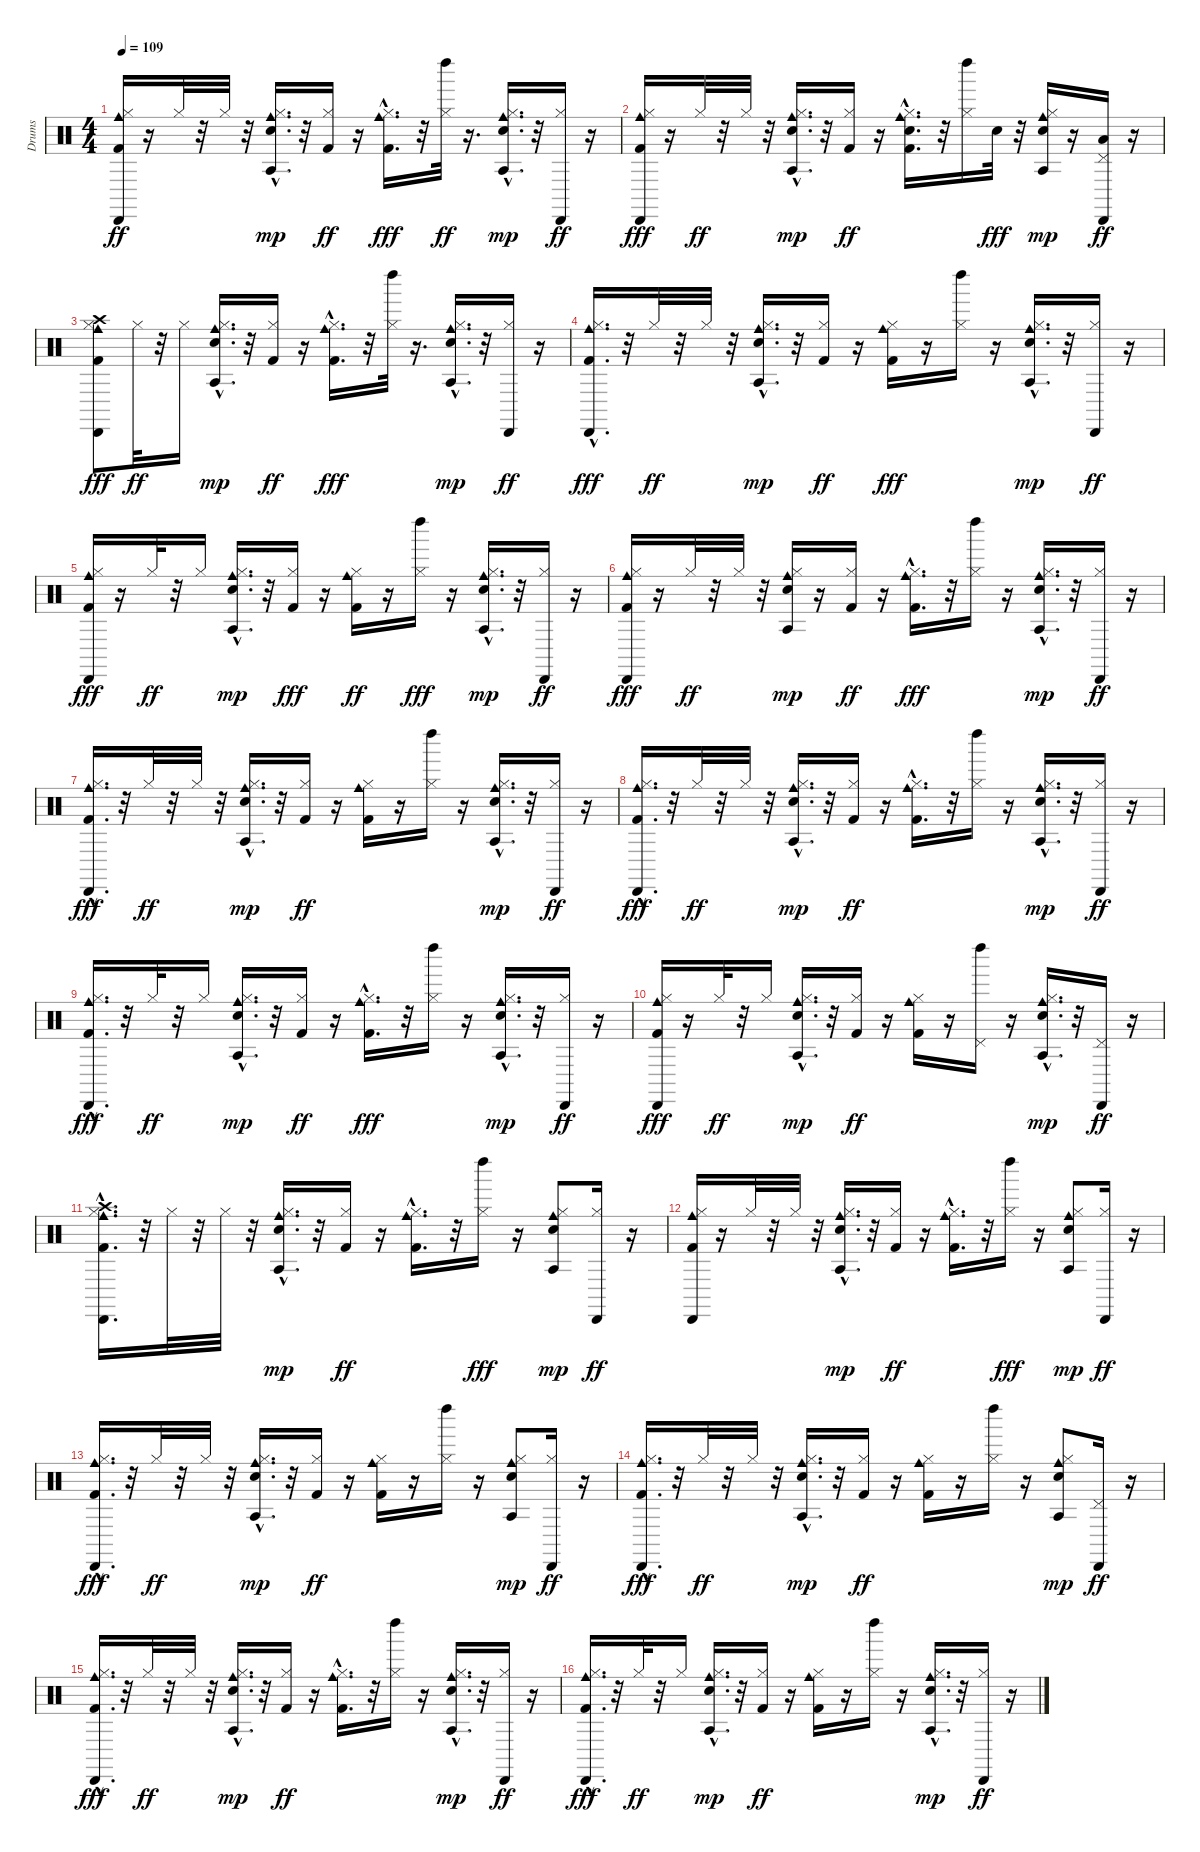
\track ("Drums   " "Drums   ") {instrument percussion}
\staff {score}
\articulation defaults
\ts (4 4)
\tempo 109
\clef neutral
\ks c
("Kick (hit) 2" "Cowbell medium (hit)" "Hi-Hat (closed)" "Cabasa (hit)").16{dy ff} r.16 "Hi-Hat (closed)".32 r.32 "Hi-Hat (closed)".32 r.32 ("Snare (hit) 2"{hac} "Hi-Hat (closed)"{hac} "Cowbell medium (hit)"{hac} "Agogo tow (hit)"{hac}).16{d dy mp} r.32 ("Kick (hit) 2" "Hi-Hat (closed)").16{dy ff} r.16 ("Kick (hit) 2"{hac} "Cowbell medium (hit)"{hac} "Hi-Hat (closed)"{hac}).16{d dy fff} r.32 ("Hi-Hat (closed)" "Left Maraca (hit)").32{dy ff} r.16{d} ("Snare (hit) 2"{hac} "Hi-Hat (closed)"{hac} "Cowbell medium (hit)"{hac} "Agogo tow (hit)"{hac}).16{d dy mp} r.32 ("Hi-Hat (closed)" "Cabasa (hit)").16{dy ff} r.16 |
("Kick (hit) 2" "Hi-Hat (closed)" "Cowbell medium (hit)" "Cabasa (hit)").16{dy fff} r.16 "Hi-Hat (closed)".32{dy ff} r.32 "Hi-Hat (closed)".32 r.32 ("Snare (hit) 2"{hac} "Hi-Hat (closed)"{hac} "Cowbell medium (hit)"{hac} "Agogo tow (hit)"{hac}).16{d dy mp} r.32 ("Kick (hit) 2" "Hi-Hat (closed)").16{dy ff} r.16 ("Kick (hit) 2"{hac} "Cowbell medium (hit)"{hac} "Snare (hit) 2"{hac} "Hi-Hat (closed)"{hac}).16{d} r.32 ("Hi-Hat (closed)" "Left Maraca (hit)").16 "Snare (hit) 2".32{dy fff} r.32 ("Cowbell medium (hit)" "Snare (hit) 2" "Hi-Hat (closed)" "Agogo tow (hit)").16{dy mp} r.16 ("Pedal Hi-Hat (hit)" "Low Tom (hit)" "Cabasa (hit)").16{dy ff} r.16 |
("Kick (hit) 2" "Cowbell medium (hit)" "Hi-Hat (closed)" "Cabasa (hit)" "Crash high (hit)").8{dy fff} "Hi-Hat (closed)".32{dy ff} r.32 "Hi-Hat (closed)".16 ("Snare (hit) 2"{hac} "Hi-Hat (closed)"{hac} "Cowbell medium (hit)"{hac} "Agogo tow (hit)"{hac}).16{d dy mp} r.32 ("Kick (hit) 2" "Hi-Hat (closed)").16{dy ff} r.16 ("Kick (hit) 2"{hac} "Hi-Hat (closed)"{hac} "Cowbell medium (hit)"{hac}).16{d dy fff} r.32 ("Hi-Hat (closed)" "Left Maraca (hit)").32 r.16{d} ("Snare (hit) 2"{hac} "Hi-Hat (closed)"{hac} "Cowbell medium (hit)"{hac} "Agogo tow (hit)"{hac}).16{d dy mp} r.32 ("Hi-Hat (closed)" "Cabasa (hit)").16{dy ff} r.16 |
("Kick (hit) 2"{hac} "Cowbell medium (hit)"{hac} "Hi-Hat (closed)"{hac} "Cabasa (hit)"{hac}).16{d dy fff} r.32 "Hi-Hat (closed)".32{dy ff} r.32 "Hi-Hat (closed)".32 r.32 ("Snare (hit) 2"{hac} "Hi-Hat (closed)"{hac} "Cowbell medium (hit)"{hac} "Agogo tow (hit)"{hac}).16{d dy mp} r.32 ("Kick (hit) 2" "Hi-Hat (closed)").16{dy ff} r.16 ("Kick (hit) 2" "Cowbell medium (hit)" "Hi-Hat (closed)").16{dy fff} r.16 ("Hi-Hat (closed)" "Left Maraca (hit)").16 r.16 ("Snare (hit) 2"{hac} "Hi-Hat (closed)"{hac} "Cowbell medium (hit)"{hac} "Agogo tow (hit)"{hac}).16{d dy mp} r.32 ("Hi-Hat (closed)" "Cabasa (hit)").16{dy ff} r.16 |
("Kick (hit) 2" "Cowbell medium (hit)" "Hi-Hat (closed)" "Cabasa (hit)").16{dy fff} r.16 "Hi-Hat (closed)".32{dy ff} r.32 "Hi-Hat (closed)".16 ("Snare (hit) 2"{hac} "Cowbell medium (hit)"{hac} "Hi-Hat (closed)"{hac} "Agogo tow (hit)"{hac}).16{d dy mp} r.32 ("Kick (hit) 2" "Hi-Hat (closed)").16{dy fff} r.16 ("Cowbell medium (hit)" "Kick (hit) 2" "Hi-Hat (closed)").16{dy ff} r.16 ("Hi-Hat (closed)" "Left Maraca (hit)").16{dy fff} r.16 ("Snare (hit) 2"{hac} "Hi-Hat (closed)"{hac} "Cowbell medium (hit)"{hac} "Agogo tow (hit)"{hac}).16{d dy mp} r.32 ("Hi-Hat (closed)" "Cabasa (hit)").16{dy ff} r.16 |
("Kick (hit) 2" "Hi-Hat (closed)" "Cowbell medium (hit)" "Cabasa (hit)").16{dy fff} r.16 "Hi-Hat (closed)".32{dy ff} r.32 "Hi-Hat (closed)".32 r.32 ("Snare (hit) 2" "Cowbell medium (hit)" "Hi-Hat (closed)" "Agogo tow (hit)").16{dy mp} r.16 ("Kick (hit) 2" "Hi-Hat (closed)").16{dy ff} r.16 ("Kick (hit) 2"{hac} "Hi-Hat (closed)"{hac} "Cowbell medium (hit)"{hac}).16{d dy fff} r.32 ("Hi-Hat (closed)" "Left Maraca (hit)").16 r.16 ("Snare (hit) 2"{hac} "Cowbell medium (hit)"{hac} "Hi-Hat (closed)"{hac} "Agogo tow (hit)"{hac}).16{d dy mp} r.32 ("Hi-Hat (closed)" "Cabasa (hit)").16{dy ff} r.16 |
("Kick (hit) 2"{hac} "Cowbell medium (hit)"{hac} "Hi-Hat (closed)"{hac} "Cabasa (hit)"{hac}).16{d dy fff} r.32 "Hi-Hat (closed)".32{dy ff} r.32 "Hi-Hat (closed)".32 r.32 ("Snare (hit) 2"{hac} "Hi-Hat (closed)"{hac} "Cowbell medium (hit)"{hac} "Agogo tow (hit)"{hac}).16{d dy mp} r.32 ("Kick (hit) 2" "Hi-Hat (closed)").16{dy ff} r.16 ("Kick (hit) 2" "Cowbell medium (hit)" "Hi-Hat (closed)").16 r.16 ("Hi-Hat (closed)" "Left Maraca (hit)").16 r.16 ("Snare (hit) 2"{hac} "Hi-Hat (closed)"{hac} "Cowbell medium (hit)"{hac} "Agogo tow (hit)"{hac}).16{d dy mp} r.32 ("Hi-Hat (closed)" "Cabasa (hit)").16{dy ff} r.16 |
("Kick (hit) 2"{hac} "Cowbell medium (hit)"{hac} "Hi-Hat (closed)"{hac} "Cabasa (hit)"{hac}).16{d dy fff} r.32 "Hi-Hat (closed)".32{dy ff} r.32 "Hi-Hat (closed)".32 r.32 ("Snare (hit) 2"{hac} "Hi-Hat (closed)"{hac} "Cowbell medium (hit)"{hac} "Agogo tow (hit)"{hac}).16{d dy mp} r.32 ("Kick (hit) 2" "Hi-Hat (closed)").16{dy ff} r.16 ("Kick (hit) 2"{hac} "Cowbell medium (hit)"{hac} "Hi-Hat (closed)"{hac}).16{d} r.32 ("Hi-Hat (closed)" "Left Maraca (hit)").16 r.16 ("Snare (hit) 2"{hac} "Hi-Hat (closed)"{hac} "Cowbell medium (hit)"{hac} "Agogo tow (hit)"{hac}).16{d dy mp} r.32 ("Hi-Hat (closed)" "Cabasa (hit)").16{dy ff} r.16 |
("Cowbell medium (hit)"{hac} "Kick (hit) 2"{hac} "Hi-Hat (closed)"{hac} "Cabasa (hit)"{hac}).16{d dy fff} r.32 "Hi-Hat (closed)".32{dy ff} r.32 "Hi-Hat (closed)".16 ("Snare (hit) 2"{hac} "Hi-Hat (closed)"{hac} "Cowbell medium (hit)"{hac} "Agogo tow (hit)"{hac}).16{d dy mp} r.32 ("Kick (hit) 2" "Hi-Hat (closed)").16{dy ff} r.16 ("Kick (hit) 2"{hac} "Hi-Hat (closed)"{hac} "Cowbell medium (hit)"{hac}).16{d dy fff} r.32 ("Hi-Hat (closed)" "Left Maraca (hit)").16 r.16 ("Snare (hit) 2"{hac} "Hi-Hat (closed)"{hac} "Cowbell medium (hit)"{hac} "Agogo tow (hit)"{hac}).16{d dy mp} r.32 ("Hi-Hat (closed)" "Cabasa (hit)").16{dy ff} r.16 |
("Kick (hit) 2" "Cowbell medium (hit)" "Hi-Hat (closed)" "Cabasa (hit)").16{dy fff} r.16 "Hi-Hat (closed)".32{dy ff} r.32 "Hi-Hat (closed)".16 ("Snare (hit) 2"{hac} "Hi-Hat (closed)"{hac} "Cowbell medium (hit)"{hac} "Agogo tow (hit)"{hac}).16{d dy mp} r.32 ("Kick (hit) 2" "Hi-Hat (closed)").16{dy ff} r.16 ("Kick (hit) 2" "Cowbell medium (hit)" "Hi-Hat (closed)").16 r.16 ("Pedal Hi-Hat (hit)" "Left Maraca (hit)").16 r.16 ("Snare (hit) 2"{hac} "Hi-Hat (closed)"{hac} "Cowbell medium (hit)"{hac} "Agogo tow (hit)"{hac}).16{d dy mp} r.32 ("Pedal Hi-Hat (hit)" "Cabasa (hit)").16{dy ff} r.16 |
("Kick (hit) 2"{hac} "Cowbell medium (hit)"{hac} "Hi-Hat (closed)"{hac} "Crash high (hit)"{hac} "Cabasa (hit)"{hac}).16{d} r.32 "Hi-Hat (closed)".32 r.32 "Hi-Hat (closed)".32 r.32 ("Snare (hit) 2"{hac} "Hi-Hat (closed)"{hac} "Cowbell medium (hit)"{hac} "Agogo tow (hit)"{hac}).16{d dy mp} r.32 ("Kick (hit) 2" "Hi-Hat (closed)").16{dy ff} r.16 ("Kick (hit) 2"{hac} "Cowbell medium (hit)"{hac} "Hi-Hat (closed)"{hac}).16{d} r.32 ("Hi-Hat (closed)" "Left Maraca (hit)").16{dy fff} r.16 ("Snare (hit) 2" "Hi-Hat (closed)" "Cowbell medium (hit)" "Agogo tow (hit)").8{dy mp} ("Hi-Hat (closed)" "Cabasa (hit)").16{dy ff} r.16 |
("Cowbell medium (hit)" "Kick (hit) 2" "Hi-Hat (closed)" "Cabasa (hit)").16 r.16 "Hi-Hat (closed)".32 r.32 "Hi-Hat (closed)".32 r.32 ("Snare (hit) 2"{hac} "Hi-Hat (closed)"{hac} "Cowbell medium (hit)"{hac} "Agogo tow (hit)"{hac}).16{d dy mp} r.32 ("Kick (hit) 2" "Hi-Hat (closed)").16{dy ff} r.16 ("Kick (hit) 2"{hac} "Cowbell medium (hit)"{hac} "Hi-Hat (closed)"{hac}).16{d} r.32 ("Hi-Hat (closed)" "Left Maraca (hit)").16{dy fff} r.16 ("Snare (hit) 2" "Hi-Hat (closed)" "Cowbell medium (hit)" "Agogo tow (hit)").8{dy mp} ("Hi-Hat (closed)" "Cabasa (hit)").16{dy ff} r.16 |
("Cowbell medium (hit)"{hac} "Kick (hit) 2"{hac} "Hi-Hat (closed)"{hac} "Cabasa (hit)"{hac}).16{d dy fff} r.32 "Hi-Hat (closed)".32{dy ff} r.32 "Hi-Hat (closed)".32 r.32 ("Snare (hit) 2"{hac} "Hi-Hat (closed)"{hac} "Cowbell medium (hit)"{hac} "Agogo tow (hit)"{hac}).16{d dy mp} r.32 ("Kick (hit) 2" "Hi-Hat (closed)").16{dy ff} r.16 ("Cowbell medium (hit)" "Kick (hit) 2" "Hi-Hat (closed)").16 r.16 ("Hi-Hat (closed)" "Left Maraca (hit)").16 r.16 ("Snare (hit) 2" "Cowbell medium (hit)" "Hi-Hat (closed)" "Agogo tow (hit)").8{dy mp} ("Hi-Hat (closed)" "Cabasa (hit)").16{dy ff} r.16 |
("Cowbell medium (hit)"{hac} "Kick (hit) 2"{hac} "Hi-Hat (closed)"{hac} "Cabasa (hit)"{hac}).16{d dy fff} r.32 "Hi-Hat (closed)".32{dy ff} r.32 "Hi-Hat (closed)".32 r.32 ("Snare (hit) 2"{hac} "Cowbell medium (hit)"{hac} "Hi-Hat (closed)"{hac} "Agogo tow (hit)"{hac}).16{d dy mp} r.32 ("Kick (hit) 2" "Hi-Hat (closed)").16{dy ff} r.16 ("Cowbell medium (hit)" "Kick (hit) 2" "Hi-Hat (closed)").16 r.16 ("Hi-Hat (closed)" "Left Maraca (hit)").16 r.16 ("Snare (hit) 2" "Hi-Hat (closed)" "Cowbell medium (hit)" "Agogo tow (hit)").8{dy mp} ("Pedal Hi-Hat (hit)" "Cabasa (hit)").16{dy ff} r.16 |
("Cowbell medium (hit)"{hac} "Kick (hit) 2"{hac} "Hi-Hat (closed)"{hac} "Cabasa (hit)"{hac}).16{d dy fff} r.32 "Hi-Hat (closed)".32{dy ff} r.32 "Hi-Hat (closed)".32 r.32 ("Snare (hit) 2"{hac} "Hi-Hat (closed)"{hac} "Cowbell medium (hit)"{hac} "Agogo tow (hit)"{hac}).16{d dy mp} r.32 ("Kick (hit) 2" "Hi-Hat (closed)").16{dy ff} r.16 ("Kick (hit) 2"{hac} "Cowbell medium (hit)"{hac} "Hi-Hat (closed)"{hac}).16{d} r.32 ("Hi-Hat (closed)" "Left Maraca (hit)").16 r.16 ("Snare (hit) 2"{hac} "Hi-Hat (closed)"{hac} "Cowbell medium (hit)"{hac} "Agogo tow (hit)"{hac}).16{d dy mp} r.32 ("Hi-Hat (closed)" "Cabasa (hit)").16{dy ff} r.16 |
("Kick (hit) 2"{hac} "Cowbell medium (hit)"{hac} "Hi-Hat (closed)"{hac} "Cabasa (hit)"{hac}).16{d dy fff} r.32 "Hi-Hat (closed)".32{dy ff} r.32 "Hi-Hat (closed)".16 ("Snare (hit) 2"{hac} "Hi-Hat (closed)"{hac} "Cowbell medium (hit)"{hac} "Agogo tow (hit)"{hac}).16{d dy mp} r.32 ("Kick (hit) 2" "Hi-Hat (closed)").16{dy ff} r.16 ("Kick (hit) 2" "Cowbell medium (hit)" "Hi-Hat (closed)").16 r.16 ("Hi-Hat (closed)" "Left Maraca (hit)").16 r.16 ("Snare (hit) 2"{hac} "Hi-Hat (closed)"{hac} "Cowbell medium (hit)"{hac} "Agogo tow (hit)"{hac}).16{d dy mp} r.32 ("Hi-Hat (closed)" "Cabasa (hit)").16{dy ff} r.16
